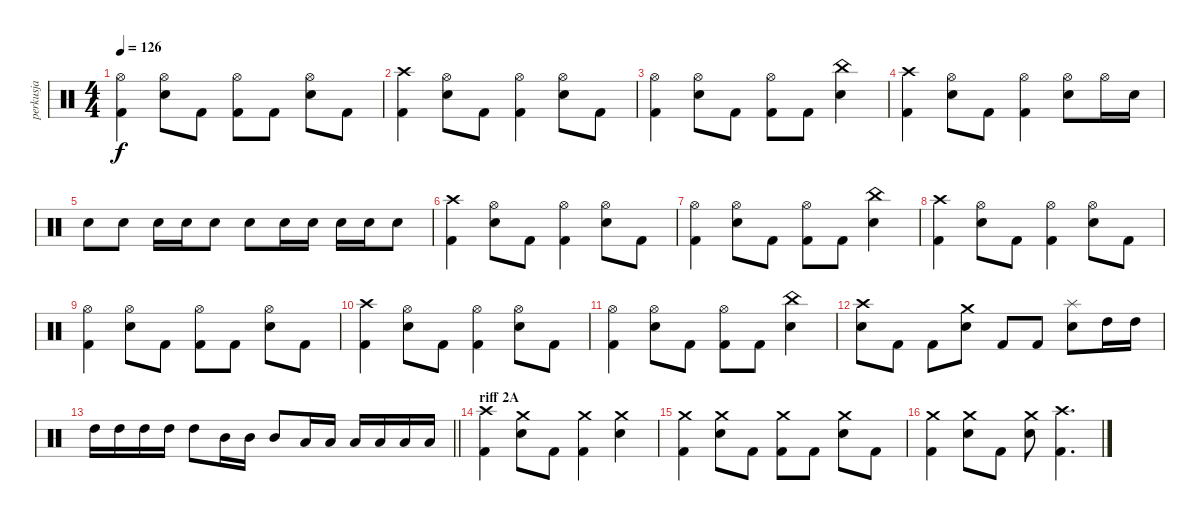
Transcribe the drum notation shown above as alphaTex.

\track ("perkusja" "perkusja") {instrument percussion}
\staff {score}
\articulation defaults
\ts (4 4)
\tempo 126
\clef neutral
\ks c
("Hi-Hat (open)" "Kick (hit) 2").4{dy f} ("Hi-Hat (open)" "Electric Snare (hit)").8 "Kick (hit) 2".8 ("Hi-Hat (open)" "Kick (hit) 2").8 "Kick (hit) 2".8 ("Hi-Hat (open)" "Electric Snare (hit)").8 "Kick (hit) 2".8 |
("Crash high (hit)" "Kick (hit) 2").4 ("Hi-Hat (open)" "Electric Snare (hit)").8 "Kick (hit) 2".8 ("Hi-Hat (open)" "Kick (hit) 2").4 ("Hi-Hat (open)" "Electric Snare (hit)").8 "Kick (hit) 2".8 |
("Hi-Hat (open)" "Kick (hit) 2").4 ("Hi-Hat (open)" "Electric Snare (hit)").8 "Kick (hit) 2".8 ("Hi-Hat (open)" "Kick (hit) 2").8 "Kick (hit) 2".8 ("China (hit)" "Electric Snare (hit)").4 |
("Crash high (hit)" "Kick (hit) 2").4 ("Hi-Hat (open)" "Electric Snare (hit)").8 "Kick (hit) 2".8 ("Hi-Hat (open)" "Kick (hit) 2").4 ("Hi-Hat (open)" "Electric Snare (hit)").8 "Hi-Hat (open)".16 "Electric Snare (hit)".16 |
"Electric Snare (hit)".8 "Electric Snare (hit)".8 "Electric Snare (hit)".16 "Electric Snare (hit)".16 "Electric Snare (hit)".8 "Electric Snare (hit)".8 "Electric Snare (hit)".16 "Electric Snare (hit)".16 "Electric Snare (hit)".16 "Electric Snare (hit)".16 "Electric Snare (hit)".8 |
("Crash high (hit)" "Kick (hit) 2").4 ("Hi-Hat (open)" "Electric Snare (hit)").8 "Kick (hit) 2".8 ("Hi-Hat (open)" "Kick (hit) 2").4 ("Hi-Hat (open)" "Electric Snare (hit)").8 "Kick (hit) 2".8 |
("Hi-Hat (open)" "Kick (hit) 2").4 ("Hi-Hat (open)" "Electric Snare (hit)").8 "Kick (hit) 2".8 ("Hi-Hat (open)" "Kick (hit) 2").8 "Kick (hit) 2".8 ("China (hit)" "Electric Snare (hit)").4 |
("Crash high (hit)" "Kick (hit) 2").4 ("Hi-Hat (open)" "Electric Snare (hit)").8 "Kick (hit) 2".8 ("Hi-Hat (open)" "Kick (hit) 2").4 ("Hi-Hat (open)" "Electric Snare (hit)").8 "Kick (hit) 2".8 |
("Hi-Hat (open)" "Kick (hit) 2").4 ("Hi-Hat (open)" "Electric Snare (hit)").8 "Kick (hit) 2".8 ("Hi-Hat (open)" "Kick (hit) 2").8 "Kick (hit) 2".8 ("Hi-Hat (open)" "Electric Snare (hit)").8 "Kick (hit) 2".8 |
("Crash high (hit)" "Kick (hit) 2").4 ("Hi-Hat (open)" "Electric Snare (hit)").8 "Kick (hit) 2".8 ("Hi-Hat (open)" "Kick (hit) 2").4 ("Hi-Hat (open)" "Electric Snare (hit)").8 "Kick (hit) 2".8 |
("Hi-Hat (open)" "Kick (hit) 2").4 ("Hi-Hat (open)" "Electric Snare (hit)").8 "Kick (hit) 2".8 ("Hi-Hat (open)" "Kick (hit) 2").8 "Kick (hit) 2".8 ("China (hit)" "Electric Snare (hit)").4 |
("Crash high (hit)" "Electric Snare (hit)").8 "Kick (hit) 2".8 "Kick (hit) 2".8 ("Crash medium (hit)" "Electric Snare (hit)").8 "Kick (hit) 2".8 "Kick (hit) 2".8 ("Splash (hit)" "Electric Snare (hit)").8 "High Tom (hit)".16 "High Tom (hit)".16 |
\barLineRight lightlight "High Tom (hit)".16 "High Tom (hit)".16 "High Tom (hit)".16 "High Tom (hit)".16 "High Tom (hit)".8 "Mid Tom (hit)".16 "Mid Tom (hit)".16 "Mid Tom (hit)".8 "Low Tom (hit)".16 "Low Tom (hit)".16 "Low Tom (hit)".16 "Low Tom (hit)".16 "Low Tom (hit)".16 "Low Tom (hit)".16
|
\section ("" "riff 2A")
("Crash high (hit)" "Kick (hit) 2").4 ("Crash medium (hit)" "Electric Snare (hit)").8 "Kick (hit) 2".8 ("Crash medium (hit)" "Kick (hit) 2").4 ("Crash medium (hit)" "Electric Snare (hit)").4 |
("Crash medium (hit)" "Kick (hit) 2").4 ("Crash medium (hit)" "Electric Snare (hit)").8 "Kick (hit) 2".8 ("Crash medium (hit)" "Kick (hit) 2").8 "Kick (hit) 2".8 ("Crash medium (hit)" "Electric Snare (hit)").8 "Kick (hit) 2".8 |
("Crash medium (hit)" "Kick (hit) 2").4 ("Crash medium (hit)" "Electric Snare (hit)").8 "Kick (hit) 2".8 ("Crash medium (hit)" "Electric Snare (hit)").8 ("Crash high (hit)" "Kick (hit) 2").4{d}
